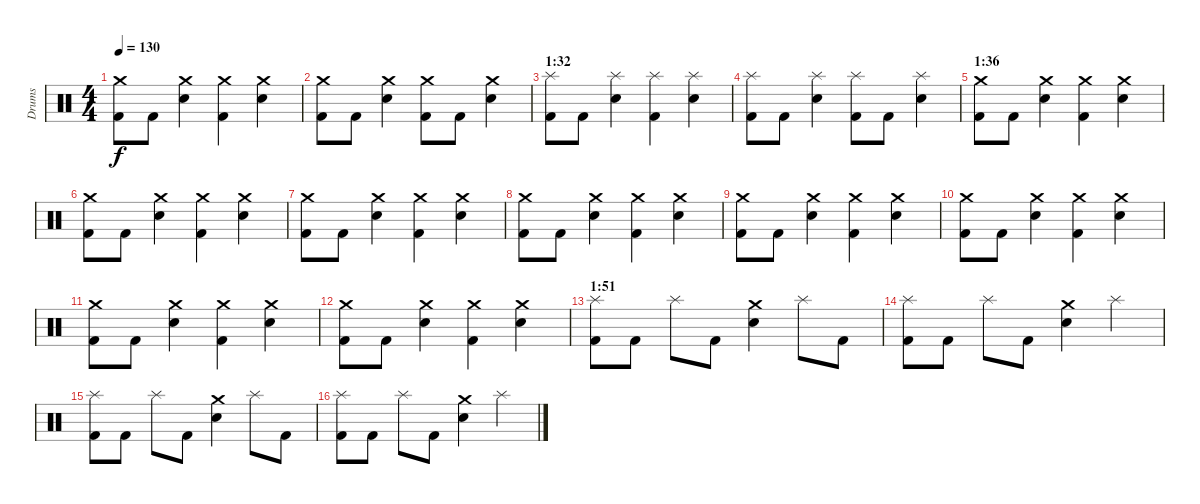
\track ("Drums" "Drums") {instrument percussion}
\staff {score}
\articulation defaults
\ts (4 4)
\tempo 130
\clef neutral
\ks c
("Crash medium (hit)" "Kick (hit) 2").8{dy f} "Kick (hit) 2".8 ("Crash medium (hit)" "Snare (hit) 2").4 ("Crash medium (hit)" "Kick (hit) 2").4 ("Crash medium (hit)" "Snare (hit) 2").4 |
("Crash medium (hit)" "Kick (hit) 2").8 "Kick (hit) 2".8 ("Crash medium (hit)" "Snare (hit) 2").4 ("Crash medium (hit)" "Kick (hit) 2").8 "Kick (hit) 2".8 ("Crash medium (hit)" "Snare (hit) 2").4 |
\section ("" "1:32")
("Splash (hit)" "Kick (hit) 2").8 "Kick (hit) 2".8 ("Splash (hit)" "Snare (hit) 2").4 ("Splash (hit)" "Kick (hit) 2").4 ("Splash (hit)" "Snare (hit) 2").4 |
("Splash (hit)" "Kick (hit) 2").8 "Kick (hit) 2".8 ("Splash (hit)" "Snare (hit) 2").4 ("Splash (hit)" "Kick (hit) 2").8 "Kick (hit) 2".8 ("Splash (hit)" "Snare (hit) 2").4 |
\section ("" "1:36")
("Crash medium (hit)" "Kick (hit) 2").8 "Kick (hit) 2".8 ("Crash medium (hit)" "Snare (hit) 2").4 ("Crash medium (hit)" "Kick (hit) 2").4 ("Crash medium (hit)" "Snare (hit) 2").4 |
("Crash medium (hit)" "Kick (hit) 2").8 "Kick (hit) 2".8 ("Crash medium (hit)" "Snare (hit) 2").4 ("Crash medium (hit)" "Kick (hit) 2").4 ("Crash medium (hit)" "Snare (hit) 2").4 |
("Crash medium (hit)" "Kick (hit) 2").8 "Kick (hit) 2".8 ("Crash medium (hit)" "Snare (hit) 2").4 ("Crash medium (hit)" "Kick (hit) 2").4 ("Crash medium (hit)" "Snare (hit) 2").4 |
("Crash medium (hit)" "Kick (hit) 2").8 "Kick (hit) 2".8 ("Crash medium (hit)" "Snare (hit) 2").4 ("Crash medium (hit)" "Kick (hit) 2").4 ("Crash medium (hit)" "Snare (hit) 2").4 |
("Crash medium (hit)" "Kick (hit) 2").8 "Kick (hit) 2".8 ("Crash medium (hit)" "Snare (hit) 2").4 ("Crash medium (hit)" "Kick (hit) 2").4 ("Crash medium (hit)" "Snare (hit) 2").4 |
("Crash medium (hit)" "Kick (hit) 2").8 "Kick (hit) 2".8 ("Crash medium (hit)" "Snare (hit) 2").4 ("Crash medium (hit)" "Kick (hit) 2").4 ("Crash medium (hit)" "Snare (hit) 2").4 |
("Crash medium (hit)" "Kick (hit) 2").8 "Kick (hit) 2".8 ("Crash medium (hit)" "Snare (hit) 2").4 ("Crash medium (hit)" "Kick (hit) 2").4 ("Crash medium (hit)" "Snare (hit) 2").4 |
("Crash medium (hit)" "Kick (hit) 2").8 "Kick (hit) 2".8 ("Crash medium (hit)" "Snare (hit) 2").4 ("Crash medium (hit)" "Kick (hit) 2").4 ("Crash medium (hit)" "Snare (hit) 2").4 |
\section ("" "1:51")
("Splash (hit)" "Kick (hit) 2").8 "Kick (hit) 2".8 "Splash (hit)".8 "Kick (hit) 2".8 ("Crash medium (hit)" "Snare (hit) 2").4 "Splash (hit)".8 "Kick (hit) 2".8 |
("Splash (hit)" "Kick (hit) 2").8 "Kick (hit) 2".8 "Splash (hit)".8 "Kick (hit) 2".8 ("Crash medium (hit)" "Snare (hit) 2").4 "Splash (hit)".4 |
("Splash (hit)" "Kick (hit) 2").8 "Kick (hit) 2".8 "Splash (hit)".8 "Kick (hit) 2".8 ("Crash medium (hit)" "Snare (hit) 2").4 "Splash (hit)".8 "Kick (hit) 2".8 |
("Splash (hit)" "Kick (hit) 2").8 "Kick (hit) 2".8 "Splash (hit)".8 "Kick (hit) 2".8 ("Crash medium (hit)" "Snare (hit) 2").4 "Splash (hit)".4
